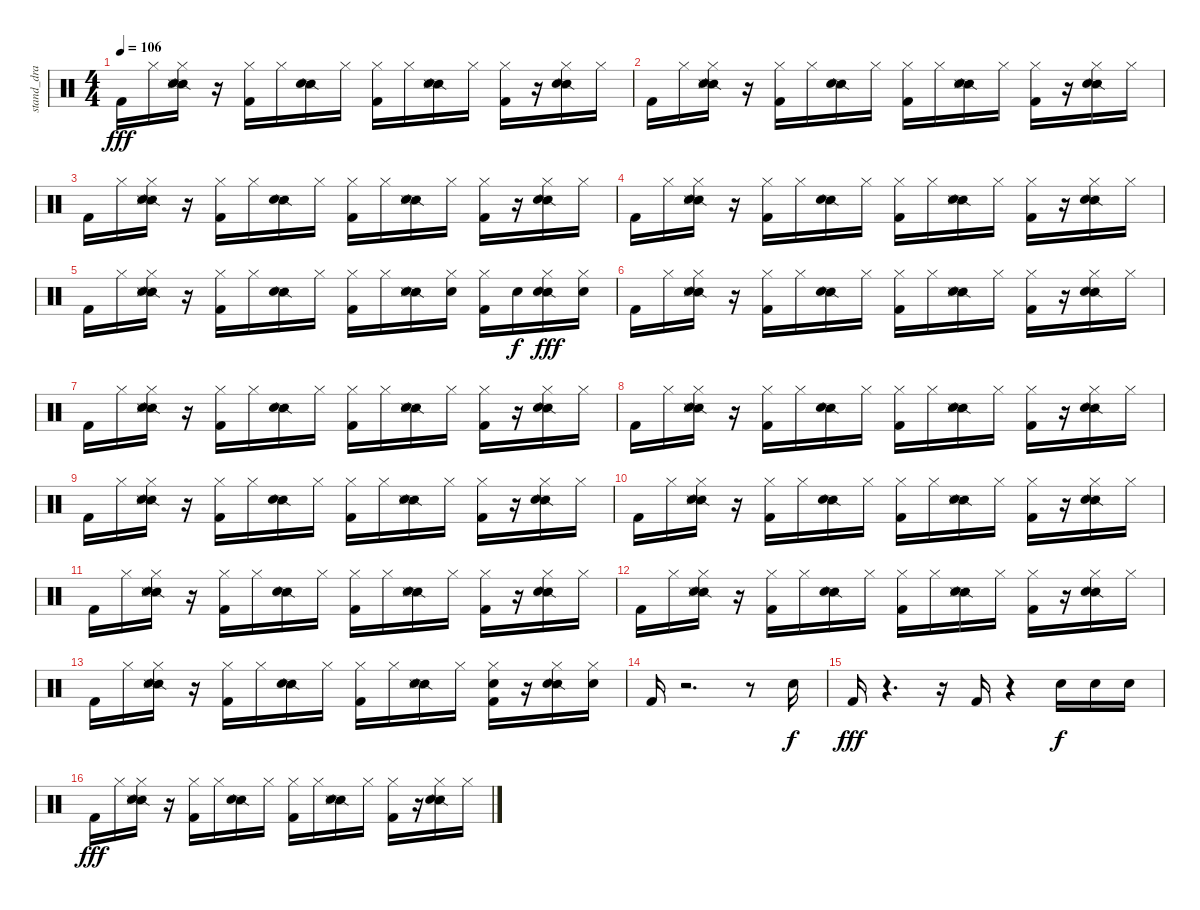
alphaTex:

\track ("stand_dra" "stand_dra") {instrument percussion}
\staff {score}
\articulation defaults
\ts (4 4)
\tempo 106
\clef neutral
\ks c "Kick (hit) 2".16{dy fff} "Hi-Hat (closed)".16
("Snare (side stick) 2" "Metronome (hit)" "Snare (hit) 2" "Hi-Hat (closed)").16 r.16 ("Kick (hit) 2" "Hi-Hat (closed)").16 "Hi-Hat (closed)".16 ("Snare (side stick) 2" "Snare (hit) 2").16 "Hi-Hat (closed)".16 ("Kick (hit) 2" "Hi-Hat (closed)").16 "Hi-Hat (closed)".16 ("Snare (side stick) 2" "Metronome (hit)" "Snare (hit) 2").16 "Hi-Hat (closed)".16 ("Kick (hit) 2" "Hi-Hat (closed)").16 r.16 ("Snare (side stick) 2" "Snare (hit) 2" "Hi-Hat (closed)").16 "Hi-Hat (closed)".16 |
"Kick (hit) 2".16 "Hi-Hat (closed)".16 ("Snare (side stick) 2" "Metronome (hit)" "Snare (hit) 2" "Hi-Hat (closed)").16 r.16 ("Kick (hit) 2" "Hi-Hat (closed)").16 "Hi-Hat (closed)".16 ("Snare (side stick) 2" "Snare (hit) 2").16 "Hi-Hat (closed)".16 ("Kick (hit) 2" "Hi-Hat (closed)").16 "Hi-Hat (closed)".16 ("Snare (side stick) 2" "Metronome (hit)" "Snare (hit) 2").16 "Hi-Hat (closed)".16 ("Kick (hit) 2" "Hi-Hat (closed)").16 r.16 ("Snare (side stick) 2" "Snare (hit) 2" "Hi-Hat (closed)").16 "Hi-Hat (closed)".16 |
"Kick (hit) 2".16 "Hi-Hat (closed)".16 ("Snare (side stick) 2" "Metronome (hit)" "Snare (hit) 2" "Hi-Hat (closed)").16 r.16 ("Kick (hit) 2" "Hi-Hat (closed)").16 "Hi-Hat (closed)".16 ("Snare (side stick) 2" "Snare (hit) 2").16 "Hi-Hat (closed)".16 ("Kick (hit) 2" "Hi-Hat (closed)").16 "Hi-Hat (closed)".16 ("Snare (side stick) 2" "Metronome (hit)" "Snare (hit) 2").16 "Hi-Hat (closed)".16 ("Kick (hit) 2" "Hi-Hat (closed)").16 r.16 ("Snare (side stick) 2" "Snare (hit) 2" "Hi-Hat (closed)").16 "Hi-Hat (closed)".16 |
"Kick (hit) 2".16 "Hi-Hat (closed)".16 ("Snare (side stick) 2" "Metronome (hit)" "Snare (hit) 2" "Hi-Hat (closed)").16 r.16 ("Kick (hit) 2" "Hi-Hat (closed)").16 "Hi-Hat (closed)".16 ("Snare (side stick) 2" "Snare (hit) 2").16 "Hi-Hat (closed)".16 ("Kick (hit) 2" "Hi-Hat (closed)").16 "Hi-Hat (closed)".16 ("Snare (side stick) 2" "Metronome (hit)" "Snare (hit) 2").16 "Hi-Hat (closed)".16 ("Kick (hit) 2" "Hi-Hat (closed)").16 r.16 ("Snare (side stick) 2" "Snare (hit) 2" "Hi-Hat (closed)").16 "Hi-Hat (closed)".16 |
"Kick (hit) 2".16 "Hi-Hat (closed)".16 ("Snare (side stick) 2" "Metronome (hit)" "Snare (hit) 2" "Hi-Hat (closed)").16 r.16 ("Kick (hit) 2" "Hi-Hat (closed)").16 "Hi-Hat (closed)".16 ("Snare (side stick) 2" "Snare (hit) 2").16 "Hi-Hat (closed)".16 ("Kick (hit) 2" "Hi-Hat (closed)").16 "Hi-Hat (closed)".16 ("Snare (side stick) 2" "Metronome (hit)" "Snare (hit) 2").16 ("Snare (hit) 2" "Hi-Hat (closed)").16 ("Kick (hit) 2" "Hi-Hat (closed)").16 "Snare (hit) 2".16{dy f} ("Snare (side stick) 2" "Snare (hit) 2" "Hi-Hat (closed)").16{dy fff} ("Snare (hit) 2" "Hi-Hat (closed)").16 |
"Kick (hit) 2".16 "Hi-Hat (closed)".16 ("Snare (side stick) 2" "Metronome (hit)" "Snare (hit) 2" "Hi-Hat (closed)").16 r.16 ("Kick (hit) 2" "Hi-Hat (closed)").16 "Hi-Hat (closed)".16 ("Snare (side stick) 2" "Snare (hit) 2").16 "Hi-Hat (closed)".16 ("Kick (hit) 2" "Hi-Hat (closed)").16 "Hi-Hat (closed)".16 ("Snare (side stick) 2" "Metronome (hit)" "Snare (hit) 2").16 "Hi-Hat (closed)".16 ("Kick (hit) 2" "Hi-Hat (closed)").16 r.16 ("Snare (side stick) 2" "Snare (hit) 2" "Hi-Hat (closed)").16 "Hi-Hat (closed)".16 |
"Kick (hit) 2".16 "Hi-Hat (closed)".16 ("Snare (side stick) 2" "Metronome (hit)" "Snare (hit) 2" "Hi-Hat (closed)").16 r.16 ("Kick (hit) 2" "Hi-Hat (closed)").16 "Hi-Hat (closed)".16 ("Snare (side stick) 2" "Snare (hit) 2").16 "Hi-Hat (closed)".16 ("Kick (hit) 2" "Hi-Hat (closed)").16 "Hi-Hat (closed)".16 ("Snare (side stick) 2" "Metronome (hit)" "Snare (hit) 2").16 "Hi-Hat (closed)".16 ("Kick (hit) 2" "Hi-Hat (closed)").16 r.16 ("Snare (side stick) 2" "Snare (hit) 2" "Hi-Hat (closed)").16 "Hi-Hat (closed)".16 |
"Kick (hit) 2".16 "Hi-Hat (closed)".16 ("Snare (side stick) 2" "Metronome (hit)" "Snare (hit) 2" "Hi-Hat (closed)").16 r.16 ("Kick (hit) 2" "Hi-Hat (closed)").16 "Hi-Hat (closed)".16 ("Snare (side stick) 2" "Snare (hit) 2").16 "Hi-Hat (closed)".16 ("Kick (hit) 2" "Hi-Hat (closed)").16 "Hi-Hat (closed)".16 ("Snare (side stick) 2" "Metronome (hit)" "Snare (hit) 2").16 "Hi-Hat (closed)".16 ("Kick (hit) 2" "Hi-Hat (closed)").16 r.16 ("Snare (side stick) 2" "Snare (hit) 2" "Hi-Hat (closed)").16 "Hi-Hat (closed)".16 |
"Kick (hit) 2".16 "Hi-Hat (closed)".16 ("Snare (side stick) 2" "Metronome (hit)" "Snare (hit) 2" "Hi-Hat (closed)").16 r.16 ("Kick (hit) 2" "Hi-Hat (closed)").16 "Hi-Hat (closed)".16 ("Snare (side stick) 2" "Snare (hit) 2").16 "Hi-Hat (closed)".16 ("Kick (hit) 2" "Hi-Hat (closed)").16 "Hi-Hat (closed)".16 ("Snare (side stick) 2" "Metronome (hit)" "Snare (hit) 2").16 "Hi-Hat (closed)".16 ("Kick (hit) 2" "Hi-Hat (closed)").16 r.16 ("Snare (side stick) 2" "Snare (hit) 2" "Hi-Hat (closed)").16 "Hi-Hat (closed)".16 |
"Kick (hit) 2".16 "Hi-Hat (closed)".16 ("Snare (side stick) 2" "Metronome (hit)" "Snare (hit) 2" "Hi-Hat (closed)").16 r.16 ("Kick (hit) 2" "Hi-Hat (closed)").16 "Hi-Hat (closed)".16 ("Snare (side stick) 2" "Snare (hit) 2").16 "Hi-Hat (closed)".16 ("Kick (hit) 2" "Hi-Hat (closed)").16 "Hi-Hat (closed)".16 ("Snare (side stick) 2" "Metronome (hit)" "Snare (hit) 2").16 "Hi-Hat (closed)".16 ("Kick (hit) 2" "Hi-Hat (closed)").16 r.16 ("Snare (side stick) 2" "Snare (hit) 2" "Hi-Hat (closed)").16 "Hi-Hat (closed)".16 |
"Kick (hit) 2".16 "Hi-Hat (closed)".16 ("Snare (side stick) 2" "Metronome (hit)" "Snare (hit) 2" "Hi-Hat (closed)").16 r.16 ("Kick (hit) 2" "Hi-Hat (closed)").16 "Hi-Hat (closed)".16 ("Snare (side stick) 2" "Snare (hit) 2").16 "Hi-Hat (closed)".16 ("Kick (hit) 2" "Hi-Hat (closed)").16 "Hi-Hat (closed)".16 ("Snare (side stick) 2" "Metronome (hit)" "Snare (hit) 2").16 "Hi-Hat (closed)".16 ("Kick (hit) 2" "Hi-Hat (closed)").16 r.16 ("Snare (side stick) 2" "Snare (hit) 2" "Hi-Hat (closed)").16 "Hi-Hat (closed)".16 |
"Kick (hit) 2".16 "Hi-Hat (closed)".16 ("Snare (side stick) 2" "Metronome (hit)" "Snare (hit) 2" "Hi-Hat (closed)").16 r.16 ("Kick (hit) 2" "Hi-Hat (closed)").16 "Hi-Hat (closed)".16 ("Snare (side stick) 2" "Snare (hit) 2").16 "Hi-Hat (closed)".16 ("Kick (hit) 2" "Hi-Hat (closed)").16 "Hi-Hat (closed)".16 ("Snare (side stick) 2" "Metronome (hit)" "Snare (hit) 2").16 "Hi-Hat (closed)".16 ("Kick (hit) 2" "Hi-Hat (closed)").16 r.16 ("Snare (side stick) 2" "Snare (hit) 2" "Hi-Hat (closed)").16 "Hi-Hat (closed)".16 |
"Kick (hit) 2".16 "Hi-Hat (closed)".16 ("Snare (side stick) 2" "Metronome (hit)" "Snare (hit) 2" "Hi-Hat (closed)").16 r.16 ("Kick (hit) 2" "Hi-Hat (closed)").16 "Hi-Hat (closed)".16 ("Snare (side stick) 2" "Snare (hit) 2").16 "Hi-Hat (closed)".16 ("Kick (hit) 2" "Hi-Hat (closed)").16 "Hi-Hat (closed)".16 ("Snare (side stick) 2" "Metronome (hit)" "Snare (hit) 2").16 "Hi-Hat (closed)".16 ("Snare (hit) 2" "Kick (hit) 2" "Hi-Hat (closed)").16 r.16 ("Snare (side stick) 2" "Snare (hit) 2" "Hi-Hat (closed)").16 ("Snare (hit) 2" "Hi-Hat (closed)").16 |
"Kick (hit) 2".16 r.2{d} r.8 "Snare (hit) 2".16{dy f} |
"Kick (hit) 2".16{dy fff} r.4{d} r.16 "Kick (hit) 2".16 r.4 "Snare (hit) 2".16{dy f} "Snare (hit) 2".16 "Snare (hit) 2".16 |
"Kick (hit) 2".16{dy fff} "Hi-Hat (closed)".16 ("Snare (side stick) 2" "Metronome (hit)" "Snare (hit) 2" "Hi-Hat (closed)").16 r.16 ("Kick (hit) 2" "Hi-Hat (closed)").16 "Hi-Hat (closed)".16 ("Snare (side stick) 2" "Snare (hit) 2").16 "Hi-Hat (closed)".16 ("Kick (hit) 2" "Hi-Hat (closed)").16 "Hi-Hat (closed)".16 ("Snare (side stick) 2" "Metronome (hit)" "Snare (hit) 2").16 "Hi-Hat (closed)".16 ("Kick (hit) 2" "Hi-Hat (closed)").16 r.16 ("Snare (side stick) 2" "Snare (hit) 2" "Hi-Hat (closed)").16 "Hi-Hat (closed)".16
